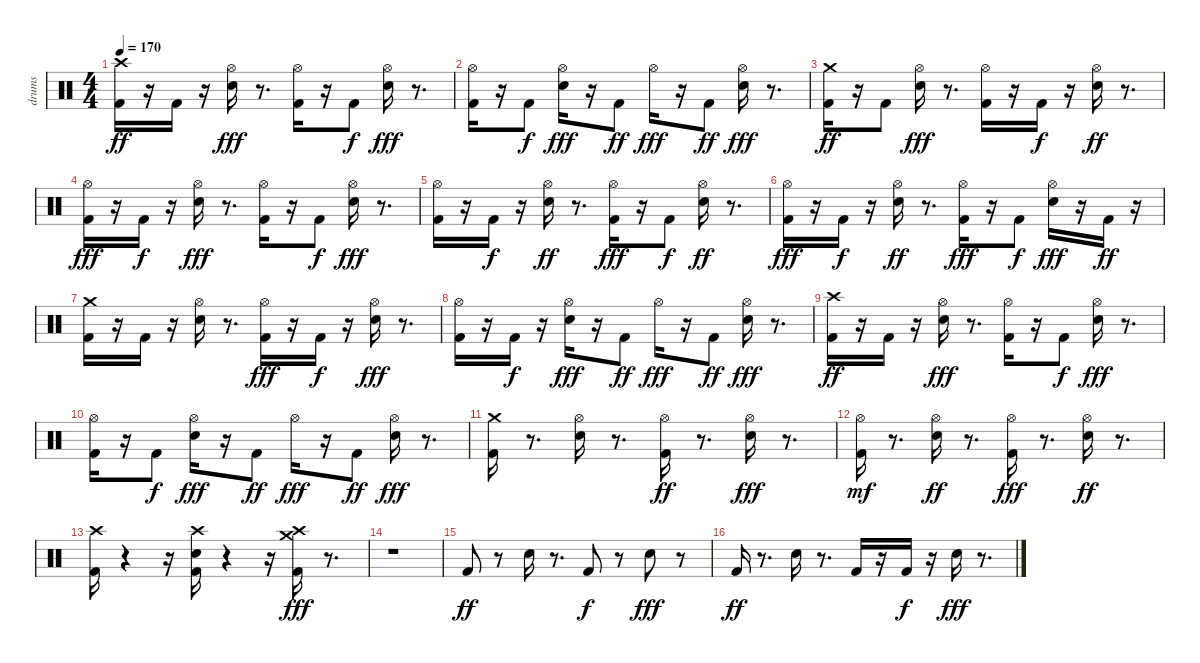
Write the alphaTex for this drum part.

\track ("drums" "drums") {instrument percussion}
\staff {score}
\articulation defaults
\ts (4 4)
\tempo 170
\clef neutral
\ks c
("Crash high (hit)" "Kick (hit) 2").16{dy ff} r.16 "Kick (hit) 2".16 r.16 ("Hi-Hat (open)" "Snare (hit) 2").16{dy fff} r.8{d} ("Kick (hit) 2" "Hi-Hat (open)").16 r.16 "Kick (hit) 2".8{dy f} ("Snare (hit) 2" "Hi-Hat (open)").16{dy fff} r.8{d} |
("Kick (hit) 2" "Hi-Hat (open)").16 r.16 "Kick (hit) 2".8{dy f} ("Snare (hit) 2" "Hi-Hat (open)").16{dy fff} r.16 "Kick (hit) 2".8{dy ff} "Hi-Hat (open)".16{dy fff} r.16 "Kick (hit) 2".8{dy ff} ("Snare (hit) 2" "Hi-Hat (open)").16{dy fff} r.8{d} |
("Kick (hit) 2" "Crash medium (hit)").16{dy ff} r.16 "Kick (hit) 2".8 ("Hi-Hat (open)" "Snare (hit) 2").16{dy fff} r.8{d} ("Kick (hit) 2" "Hi-Hat (open)").16 r.16 "Kick (hit) 2".16{dy f} r.16 ("Hi-Hat (open)" "Snare (hit) 2").16{dy ff} r.8{d} |
("Hi-Hat (open)" "Kick (hit) 2").16{dy fff} r.16 "Kick (hit) 2".16{dy f} r.16 ("Snare (hit) 2" "Hi-Hat (open)").16{dy fff} r.8{d} ("Kick (hit) 2" "Hi-Hat (open)").16 r.16 "Kick (hit) 2".8{dy f} ("Snare (hit) 2" "Hi-Hat (open)").16{dy fff} r.8{d} |
("Kick (hit) 2" "Hi-Hat (open)").16 r.16 "Kick (hit) 2".16{dy f} r.16 ("Hi-Hat (open)" "Snare (hit) 2").16{dy ff} r.8{d} ("Kick (hit) 2" "Hi-Hat (open)").16{dy fff} r.16 "Kick (hit) 2".8{dy f} ("Hi-Hat (open)" "Snare (hit) 2").16{dy ff} r.8{d} |
("Kick (hit) 2" "Hi-Hat (open)").16{dy fff} r.16 "Kick (hit) 2".16{dy f} r.16 ("Hi-Hat (open)" "Snare (hit) 2").16{dy ff} r.8{d} ("Kick (hit) 2" "Hi-Hat (open)").16{dy fff} r.16 "Kick (hit) 2".8{dy f} ("Snare (hit) 2" "Hi-Hat (open)").16{dy fff} r.16 "Kick (hit) 2".16{dy ff} r.16 |
("Crash medium (hit)" "Kick (hit) 2").16 r.16 "Kick (hit) 2".16 r.16 ("Snare (hit) 2" "Hi-Hat (open)").16 r.8{d} ("Kick (hit) 2" "Hi-Hat (open)").16{dy fff} r.16 "Kick (hit) 2".16{dy f} r.16 ("Snare (hit) 2" "Hi-Hat (open)").16{dy fff} r.8{d} |
("Kick (hit) 2" "Hi-Hat (open)").16 r.16 "Kick (hit) 2".16{dy f} r.16 ("Snare (hit) 2" "Hi-Hat (open)").16{dy fff} r.16 "Kick (hit) 2".8{dy ff} "Hi-Hat (open)".16{dy fff} r.16 "Kick (hit) 2".8{dy ff} ("Snare (hit) 2" "Hi-Hat (open)").16{dy fff} r.8{d} |
("Crash high (hit)" "Kick (hit) 2").16{dy ff} r.16 "Kick (hit) 2".16 r.16 ("Hi-Hat (open)" "Snare (hit) 2").16{dy fff} r.8{d} ("Kick (hit) 2" "Hi-Hat (open)").16 r.16 "Kick (hit) 2".8{dy f} ("Snare (hit) 2" "Hi-Hat (open)").16{dy fff} r.8{d} |
("Kick (hit) 2" "Hi-Hat (open)").16 r.16 "Kick (hit) 2".8{dy f} ("Snare (hit) 2" "Hi-Hat (open)").16{dy fff} r.16 "Kick (hit) 2".8{dy ff} "Hi-Hat (open)".16{dy fff} r.16 "Kick (hit) 2".8{dy ff} ("Snare (hit) 2" "Hi-Hat (open)").16{dy fff} r.8{d} |
("Crash medium (hit)" "Kick (hit) 2").16 r.8{d} ("Snare (hit) 2" "Hi-Hat (open)").16 r.8{d} ("Hi-Hat (open)" "Kick (hit) 2").16{dy ff} r.8{d} ("Hi-Hat (open)" "Snare (hit) 2").16{dy fff} r.8{d} |
("Hi-Hat (open)" "Kick (hit) 2").16{dy mf} r.8{d} ("Hi-Hat (open)" "Snare (hit) 2").16{dy ff} r.8{d} ("Kick (hit) 2" "Hi-Hat (open)").16{dy fff} r.8{d} ("Hi-Hat (open)" "Snare (hit) 2").16{dy ff} r.8{d} |
("Crash high (hit)" "Kick (hit) 2").16 r.4 r.16 ("Crash high (hit)" "Kick (hit) 2" "Snare (hit) 2").16 r.4 r.16 ("Crash medium (hit)" "Kick (hit) 2" "Crash high (hit)").16{dy fff} r.8{d} |
r.1 |
"Kick (hit) 2".8{dy ff} r.8 "Snare (hit) 2".16 r.8{d} "Kick (hit) 2".8{dy f} r.8 "Snare (hit) 2".8{dy fff} r.8 |
"Kick (hit) 2".16{dy ff} r.8{d} "Snare (hit) 2".16 r.8{d} "Kick (hit) 2".16 r.16 "Kick (hit) 2".16{dy f} r.16 "Snare (hit) 2".16{dy fff} r.8{d}
